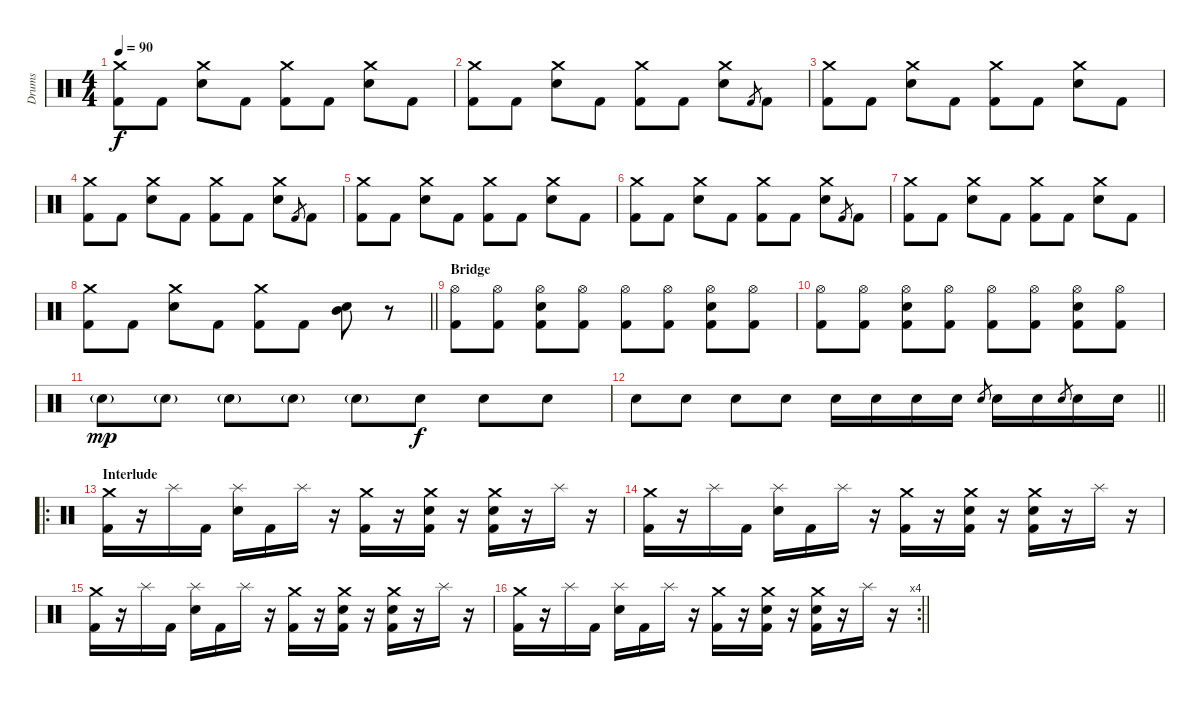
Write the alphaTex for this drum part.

\track ("Drums" "Drums") {instrument percussion}
\staff {score}
\articulation defaults
\ts (4 4)
\tempo 90
\clef neutral
\ks c
("Crash medium (hit)" "Kick (hit) 2").8{dy f} "Kick (hit) 2".8 ("Crash medium (hit)" "Electric Snare (hit)").8 "Kick (hit) 2".8 ("Crash medium (hit)" "Kick (hit) 2").8 "Kick (hit) 2".8 ("Crash medium (hit)" "Electric Snare (hit)").8 "Kick (hit) 2".8 |
("Crash medium (hit)" "Kick (hit) 2").8 "Kick (hit) 2".8 ("Crash medium (hit)" "Electric Snare (hit)").8 "Kick (hit) 2".8 ("Crash medium (hit)" "Kick (hit) 2").8 "Kick (hit) 2".8 ("Crash medium (hit)" "Electric Snare (hit)").8 "Kick (hit) 2".8{gr} "Kick (hit) 2".8 |
("Crash medium (hit)" "Kick (hit) 2").8 "Kick (hit) 2".8 ("Crash medium (hit)" "Electric Snare (hit)").8 "Kick (hit) 2".8 ("Crash medium (hit)" "Kick (hit) 2").8 "Kick (hit) 2".8 ("Crash medium (hit)" "Electric Snare (hit)").8 "Kick (hit) 2".8 |
("Crash medium (hit)" "Kick (hit) 2").8 "Kick (hit) 2".8 ("Crash medium (hit)" "Electric Snare (hit)").8 "Kick (hit) 2".8 ("Crash medium (hit)" "Kick (hit) 2").8 "Kick (hit) 2".8 ("Crash medium (hit)" "Electric Snare (hit)").8 "Kick (hit) 2".8{gr} "Kick (hit) 2".8 |
("Crash medium (hit)" "Kick (hit) 2").8 "Kick (hit) 2".8 ("Crash medium (hit)" "Electric Snare (hit)").8 "Kick (hit) 2".8 ("Crash medium (hit)" "Kick (hit) 2").8 "Kick (hit) 2".8 ("Crash medium (hit)" "Electric Snare (hit)").8 "Kick (hit) 2".8 |
("Crash medium (hit)" "Kick (hit) 2").8 "Kick (hit) 2".8 ("Crash medium (hit)" "Electric Snare (hit)").8 "Kick (hit) 2".8 ("Crash medium (hit)" "Kick (hit) 2").8 "Kick (hit) 2".8 ("Crash medium (hit)" "Electric Snare (hit)").8 "Kick (hit) 2".8{gr} "Kick (hit) 2".8 |
("Crash medium (hit)" "Kick (hit) 2").8 "Kick (hit) 2".8 ("Crash medium (hit)" "Electric Snare (hit)").8 "Kick (hit) 2".8 ("Crash medium (hit)" "Kick (hit) 2").8 "Kick (hit) 2".8 ("Crash medium (hit)" "Electric Snare (hit)").8 "Kick (hit) 2".8 |
\barLineRight lightlight
("Crash medium (hit)" "Kick (hit) 2").8 "Kick (hit) 2".8 ("Crash medium (hit)" "Electric Snare (hit)").8 "Kick (hit) 2".8 ("Crash medium (hit)" "Kick (hit) 2").8 "Kick (hit) 2".8 ("Mid Tom (hit)" "Electric Snare (hit)").8 r.8 |
\section ("" "Bridge")
("Hi-Hat (open)" "Kick (hit) 2").8 ("Hi-Hat (open)" "Kick (hit) 2").8 ("Hi-Hat (open)" "Electric Snare (hit)" "Kick (hit) 2").8 ("Hi-Hat (open)" "Kick (hit) 2").8 ("Hi-Hat (open)" "Kick (hit) 2").8 ("Hi-Hat (open)" "Kick (hit) 2").8 ("Hi-Hat (open)" "Electric Snare (hit)" "Kick (hit) 2").8 ("Hi-Hat (open)" "Kick (hit) 2").8 |
("Hi-Hat (open)" "Kick (hit) 2").8 ("Hi-Hat (open)" "Kick (hit) 2").8 ("Hi-Hat (open)" "Electric Snare (hit)" "Kick (hit) 2").8 ("Hi-Hat (open)" "Kick (hit) 2").8 ("Hi-Hat (open)" "Kick (hit) 2").8 ("Hi-Hat (open)" "Kick (hit) 2").8 ("Hi-Hat (open)" "Electric Snare (hit)" "Kick (hit) 2").8 ("Hi-Hat (open)" "Kick (hit) 2").8 |
"Electric Snare (hit)"{g}.8{dy mp} "Electric Snare (hit)"{g}.8 "Electric Snare (hit)"{g}.8 "Electric Snare (hit)"{g}.8 "Electric Snare (hit)"{g}.8 "Electric Snare (hit)".8{dy f} "Electric Snare (hit)".8 "Electric Snare (hit)".8 |
\barLineRight lightlight "Electric Snare (hit)".8 "Electric Snare (hit)".8 "Electric Snare (hit)".8 "Electric Snare (hit)".8 "Electric Snare (hit)".16 "Electric Snare (hit)".16 "Electric Snare (hit)".16 "Electric Snare (hit)".16 "Electric Snare (hit)".8{gr} "Electric Snare (hit)".16 "Electric Snare (hit)".16 "Electric Snare (hit)".8{gr} "Electric Snare (hit)".16 "Electric Snare (hit)".16
|
\ro
\section ("" "Interlude")
("Crash medium (hit)" "Kick (hit) 2").16 r.16 "Splash (hit)".16 "Kick (hit) 2".16 ("Splash (hit)" "Electric Snare (hit)").16 "Kick (hit) 2".16 "Splash (hit)".16 r.16 ("Crash medium (hit)" "Kick (hit) 2").16 r.16 ("Crash medium (hit)" "Electric Snare (hit)" "Kick (hit) 2").16 r.16 ("Crash medium (hit)" "Electric Snare (hit)" "Kick (hit) 2").16 r.16 "Splash (hit)".16 r.16 |
("Crash medium (hit)" "Kick (hit) 2").16 r.16 "Splash (hit)".16 "Kick (hit) 2".16 ("Splash (hit)" "Electric Snare (hit)").16 "Kick (hit) 2".16 "Splash (hit)".16 r.16 ("Crash medium (hit)" "Kick (hit) 2").16 r.16 ("Crash medium (hit)" "Electric Snare (hit)" "Kick (hit) 2").16 r.16 ("Crash medium (hit)" "Electric Snare (hit)" "Kick (hit) 2").16 r.16 "Splash (hit)".16 r.16 |
("Crash medium (hit)" "Kick (hit) 2").16 r.16 "Splash (hit)".16 "Kick (hit) 2".16 ("Splash (hit)" "Electric Snare (hit)").16 "Kick (hit) 2".16 "Splash (hit)".16 r.16 ("Crash medium (hit)" "Kick (hit) 2").16 r.16 ("Crash medium (hit)" "Electric Snare (hit)" "Kick (hit) 2").16 r.16 ("Crash medium (hit)" "Electric Snare (hit)" "Kick (hit) 2").16 r.16 "Splash (hit)".16 r.16 |
\rc 4
\barLineRight lightlight
("Crash medium (hit)" "Kick (hit) 2").16 r.16 "Splash (hit)".16 "Kick (hit) 2".16 ("Splash (hit)" "Electric Snare (hit)").16 "Kick (hit) 2".16 "Splash (hit)".16 r.16 ("Crash medium (hit)" "Kick (hit) 2").16 r.16 ("Crash medium (hit)" "Electric Snare (hit)" "Kick (hit) 2").16 r.16 ("Crash medium (hit)" "Electric Snare (hit)" "Kick (hit) 2").16 r.16 "Splash (hit)".16 r.16
